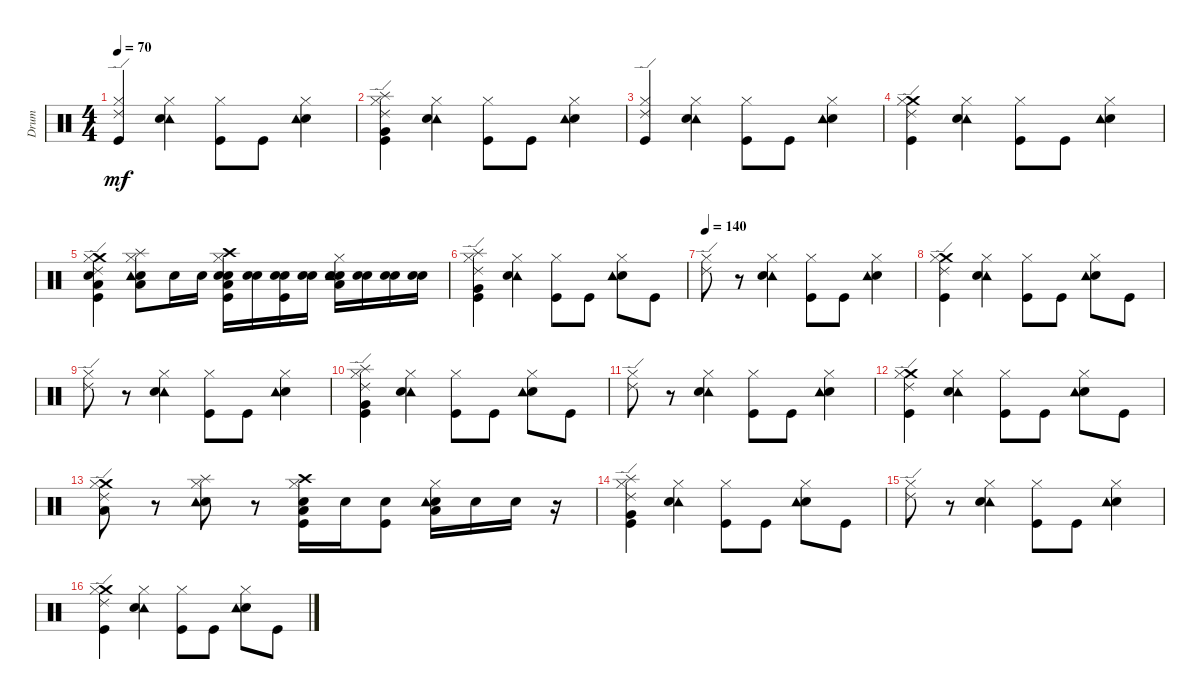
\track ("Drum" "Drum") {instrument percussion}
\staff {score}
\articulation defaults
\ts (4 4)
\tempo 70
\clef neutral
\ks c
("Ride (edge) 2" "Hi-Hat (closed)" "Kick (hit)").4{dy mf} ("Tambourine (hit)" "Hi-Hat (closed)" "Electric Snare (hit)").4 ("Hi-Hat (closed)" "Kick (hit)").8 "Kick (hit)".8 ("Electric Snare (hit)" "Tambourine (hit)" "Hi-Hat (closed)").4 |
("Splash (hit)" "Very Low Tom (hit)" "Ride (edge) 2" "Hi-Hat (closed)" "Kick (hit)").4 ("Tambourine (hit)" "Hi-Hat (closed)" "Electric Snare (hit)").4 ("Hi-Hat (closed)" "Kick (hit)").8 "Kick (hit)".8 ("Electric Snare (hit)" "Tambourine (hit)" "Hi-Hat (closed)").4 |
("Ride (edge) 2" "Hi-Hat (closed)" "Kick (hit)").4 ("Tambourine (hit)" "Hi-Hat (closed)" "Electric Snare (hit)").4 ("Hi-Hat (closed)" "Kick (hit)").8 "Kick (hit)".8 ("Electric Snare (hit)" "Tambourine (hit)" "Hi-Hat (closed)").4 |
("Crash medium (hit)" "Ride (edge) 2" "Hi-Hat (closed)" "Kick (hit)").4 ("Tambourine (hit)" "Hi-Hat (closed)" "Electric Snare (hit)").4 ("Hi-Hat (closed)" "Kick (hit)").8 "Kick (hit)".8 ("Electric Snare (hit)" "Tambourine (hit)" "Hi-Hat (closed)").4 |
("Crash medium (hit)" "Low Tom (hit)" "Electric Snare (hit)" "Ride (edge) 2" "Hi-Hat (closed)" "Kick (hit)").4 ("Splash (hit)" "Low Tom (hit)" "Electric Snare (hit)" "Tambourine (hit)" "Hi-Hat (closed)").8 "Electric Snare (hit)".16 "Electric Snare (hit)".16 ("Snare (hit) 2" "Crash high (hit)" "Low Tom (hit)" "Electric Snare (hit)" "Hi-Hat (closed)" "Kick (hit)").16 ("Snare (hit) 2" "Electric Snare (hit)").16 ("Snare (hit) 2" "Electric Snare (hit)" "Kick (hit)").16 ("Snare (hit) 2" "Electric Snare (hit)").16 ("Snare (hit) 2" "Low Tom (hit)" "Electric Snare (hit)" "Tambourine (hit)" "Hi-Hat (closed)").16 ("Snare (hit) 2" "Electric Snare (hit)").16 ("Snare (hit) 2" "Electric Snare (hit)").16 ("Snare (hit) 2" "Electric Snare (hit)").16 |
("Splash (hit)" "Very Low Tom (hit)" "Ride (edge) 2" "Hi-Hat (closed)" "Kick (hit)").4 ("Tambourine (hit)" "Hi-Hat (closed)" "Electric Snare (hit)").4 ("Hi-Hat (closed)" "Kick (hit)").8 "Kick (hit)".8 ("Electric Snare (hit)" "Tambourine (hit)" "Hi-Hat (closed)").8 "Kick (hit)".8 |
\tempo 140
("Ride (edge) 2" "Hi-Hat (closed)").8 r.8 ("Tambourine (hit)" "Hi-Hat (closed)" "Electric Snare (hit)").4 ("Hi-Hat (closed)" "Kick (hit)").8 "Kick (hit)".8 ("Electric Snare (hit)" "Tambourine (hit)" "Hi-Hat (closed)").4 |
("Crash medium (hit)" "Ride (edge) 2" "Hi-Hat (closed)" "Kick (hit)").4 ("Tambourine (hit)" "Hi-Hat (closed)" "Electric Snare (hit)").4 ("Hi-Hat (closed)" "Kick (hit)").8 "Kick (hit)".8 ("Electric Snare (hit)" "Tambourine (hit)" "Hi-Hat (closed)").8 "Kick (hit)".8 |
("Ride (edge) 2" "Hi-Hat (closed)").8 r.8 ("Tambourine (hit)" "Hi-Hat (closed)" "Electric Snare (hit)").4 ("Hi-Hat (closed)" "Kick (hit)").8 "Kick (hit)".8 ("Electric Snare (hit)" "Tambourine (hit)" "Hi-Hat (closed)").4 |
("Splash (hit)" "Very Low Tom (hit)" "Ride (edge) 2" "Hi-Hat (closed)" "Kick (hit)").4 ("Tambourine (hit)" "Hi-Hat (closed)" "Electric Snare (hit)").4 ("Hi-Hat (closed)" "Kick (hit)").8 "Kick (hit)".8 ("Electric Snare (hit)" "Tambourine (hit)" "Hi-Hat (closed)").8 "Kick (hit)".8 |
("Ride (edge) 2" "Hi-Hat (closed)").8 r.8 ("Tambourine (hit)" "Hi-Hat (closed)" "Electric Snare (hit)").4 ("Hi-Hat (closed)" "Kick (hit)").8 "Kick (hit)".8 ("Electric Snare (hit)" "Tambourine (hit)" "Hi-Hat (closed)").4 |
("Crash medium (hit)" "Ride (edge) 2" "Hi-Hat (closed)" "Kick (hit)").4 ("Tambourine (hit)" "Hi-Hat (closed)" "Electric Snare (hit)").4 ("Hi-Hat (closed)" "Kick (hit)").8 "Kick (hit)".8 ("Electric Snare (hit)" "Tambourine (hit)" "Hi-Hat (closed)").8 "Kick (hit)".8 |
("Crash medium (hit)" "Low Tom (hit)" "Ride (edge) 2" "Hi-Hat (closed)").8 r.8 ("Electric Snare (hit)" "Splash (hit)" "Tambourine (hit)" "Hi-Hat (closed)").8 r.8 ("Crash high (hit)" "Low Tom (hit)" "Electric Snare (hit)" "Hi-Hat (closed)" "Kick (hit)").16 "Electric Snare (hit)".16 ("Electric Snare (hit)" "Kick (hit)").8 ("Low Tom (hit)" "Electric Snare (hit)" "Tambourine (hit)" "Hi-Hat (closed)").16 "Electric Snare (hit)".16 "Electric Snare (hit)".16 r.16 |
("Splash (hit)" "Very Low Tom (hit)" "Ride (edge) 2" "Hi-Hat (closed)" "Kick (hit)").4 ("Tambourine (hit)" "Hi-Hat (closed)" "Electric Snare (hit)").4 ("Hi-Hat (closed)" "Kick (hit)").8 "Kick (hit)".8 ("Electric Snare (hit)" "Tambourine (hit)" "Hi-Hat (closed)").8 "Kick (hit)".8 |
("Ride (edge) 2" "Hi-Hat (closed)").8 r.8 ("Tambourine (hit)" "Hi-Hat (closed)" "Electric Snare (hit)").4 ("Hi-Hat (closed)" "Kick (hit)").8 "Kick (hit)".8 ("Electric Snare (hit)" "Tambourine (hit)" "Hi-Hat (closed)").4 |
("Crash medium (hit)" "Ride (edge) 2" "Hi-Hat (closed)" "Kick (hit)").4 ("Tambourine (hit)" "Hi-Hat (closed)" "Electric Snare (hit)").4 ("Hi-Hat (closed)" "Kick (hit)").8 "Kick (hit)".8 ("Electric Snare (hit)" "Tambourine (hit)" "Hi-Hat (closed)").8 "Kick (hit)".8
